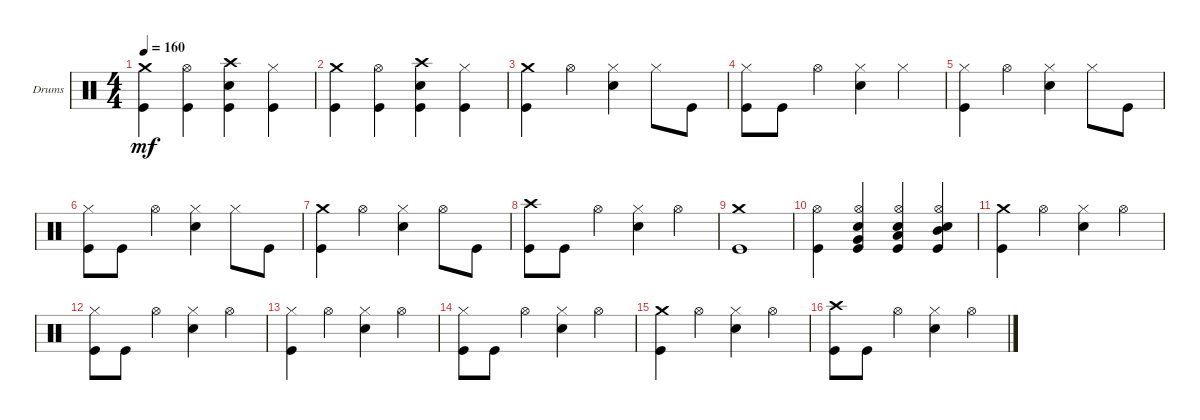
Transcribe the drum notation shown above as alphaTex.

\defaultSystemsLayout 4
\bracketExtendMode groupsimilarinstruments
\firstSystemTrackNameOrientation horizontal
\otherSystemsTrackNameOrientation horizontal
\track ("Drumkit" "Drums") {instrument percussion}
\staff {score}
\articulation defaults
\ts (4 4)
\tempo 160
\clef neutral
\scale
0.333333
\ks c
("Crash medium (hit)" "Kick (hit)").4{dy mf} ("Hi-Hat (open)" "Kick (hit)").4 ("Snare (hit) 2" "Kick (hit)" "Crash high (hit)").4 ("Hi-Hat (closed)" "Kick (hit)").4 |
\scale
0.333333 ("Crash medium (hit)" "Kick (hit)").4 ("Hi-Hat (open)" "Kick (hit)").4 ("Snare (hit) 2" "Kick (hit)" "Crash high (hit)").4 ("Hi-Hat (closed)" "Kick (hit)").4 |
\scale
0.333333 ("Crash medium (hit)" "Kick (hit)").4 "Hi-Hat (open)".4 ("Snare (hit) 2" "Hi-Hat (closed)").4 "Hi-Hat (closed)".8 "Kick (hit)".8 |
\scale
0.333333 ("Kick (hit)" "Hi-Hat (closed)").8 "Kick (hit)".8 "Hi-Hat (open)".4 ("Snare (hit) 2" "Hi-Hat (closed)").4 "Hi-Hat (closed)".4 |
\scale
0.333333 ("Kick (hit)" "Hi-Hat (closed)").4 "Hi-Hat (open)".4 ("Snare (hit) 2" "Hi-Hat (closed)").4 "Hi-Hat (closed)".8 "Kick (hit)".8 |
\scale
0.333333 ("Kick (hit)" "Hi-Hat (closed)").8 "Kick (hit)".8 "Hi-Hat (open)".4 ("Snare (hit) 2" "Hi-Hat (closed)").4 "Hi-Hat (closed)".8 "Kick (hit)".8 |
\scale
0.333333 ("Crash medium (hit)" "Kick (hit)").4 "Hi-Hat (open)".4 ("Snare (hit) 2" "Hi-Hat (closed)").4 "Hi-Hat (open)".8 "Kick (hit)".8 |
\scale
0.333333 ("Kick (hit)" "Crash high (hit)").8 "Kick (hit)".8 "Hi-Hat (open)".4 ("Snare (hit) 2" "Hi-Hat (closed)").4 "Hi-Hat (open)".4 |
\scale
0.333333 ("Crash medium (hit)" "Kick (hit)").1 |
\scale
0.333333 ("Kick (hit)" "Hi-Hat (open)").4 ("Snare (hit) 2" "Kick (hit)" "Very Low Tom (hit)" "Hi-Hat (open)").4 ("Snare (hit) 2" "Kick (hit)" "Low Tom (hit)" "Hi-Hat (open)").4 ("Snare (hit) 2" "Kick (hit)" "Mid Tom (hit)" "Hi-Hat (open)").4 |
\scale
0.333333 ("Crash medium (hit)" "Kick (hit)").4 "Hi-Hat (open)".4 ("Snare (hit) 2" "Hi-Hat (closed)").4 "Hi-Hat (open)".4 |
\scale
0.333333 ("Kick (hit)" "Hi-Hat (closed)").8 "Kick (hit)".8 "Hi-Hat (open)".4 ("Snare (hit) 2" "Hi-Hat (closed)").4 "Hi-Hat (open)".4 |
\scale
0.333333 ("Kick (hit)" "Hi-Hat (closed)").4 "Hi-Hat (open)".4 ("Snare (hit) 2" "Hi-Hat (closed)").4 "Hi-Hat (open)".4 |
\scale
0.333333 ("Kick (hit)" "Hi-Hat (closed)").8 "Kick (hit)".8 "Hi-Hat (open)".4 ("Snare (hit) 2" "Hi-Hat (closed)").4 "Hi-Hat (open)".4 |
\scale
0.333333 ("Crash medium (hit)" "Kick (hit)").4 "Hi-Hat (open)".4 ("Snare (hit) 2" "Hi-Hat (closed)").4 "Hi-Hat (open)".4 |
\scale
0.333333 ("Kick (hit)" "Crash high (hit)").8 "Kick (hit)".8 "Hi-Hat (open)".4 ("Snare (hit) 2" "Hi-Hat (closed)").4 "Hi-Hat (open)".4
